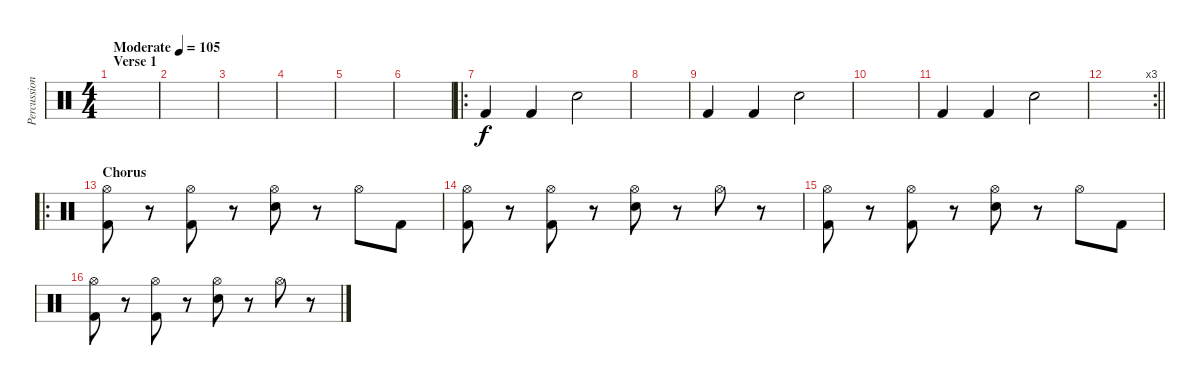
\track ("Percussion" "Percussion") {instrument percussion}
\staff {score}
\articulation defaults
\ts (4 4)
\section ("" "Verse 1")
\tempo (105 "Moderate")
\clef neutral
\ks c
|
|
|
|
|
|
\ro "Kick (hit) 2".4 "Kick (hit) 2".4 "Electric Snare (hit)".2
|
|
"Kick (hit) 2".4 "Kick (hit) 2".4 "Electric Snare (hit)".2 |
|
"Kick (hit) 2".4 "Kick (hit) 2".4 "Electric Snare (hit)".2 |
\rc 3
\barLineRight lightlight
|
\ro
\section ("" "Chorus")
("Hi-Hat (open)" "Kick (hit) 2").8 r.8 ("Hi-Hat (open)" "Kick (hit) 2").8 r.8 ("Hi-Hat (open)" "Electric Snare (hit)").8 r.8 "Hi-Hat (open)".8 "Kick (hit) 2".8 |
("Hi-Hat (open)" "Kick (hit) 2").8 r.8 ("Hi-Hat (open)" "Kick (hit) 2").8 r.8 ("Hi-Hat (open)" "Electric Snare (hit)").8 r.8 "Hi-Hat (open)".8 r.8 |
("Hi-Hat (open)" "Kick (hit) 2").8 r.8 ("Hi-Hat (open)" "Kick (hit) 2").8 r.8 ("Hi-Hat (open)" "Electric Snare (hit)").8 r.8 "Hi-Hat (open)".8 "Kick (hit) 2".8 |
("Hi-Hat (open)" "Kick (hit) 2").8 r.8 ("Hi-Hat (open)" "Kick (hit) 2").8 r.8 ("Hi-Hat (open)" "Electric Snare (hit)").8 r.8 "Hi-Hat (open)".8 r.8
